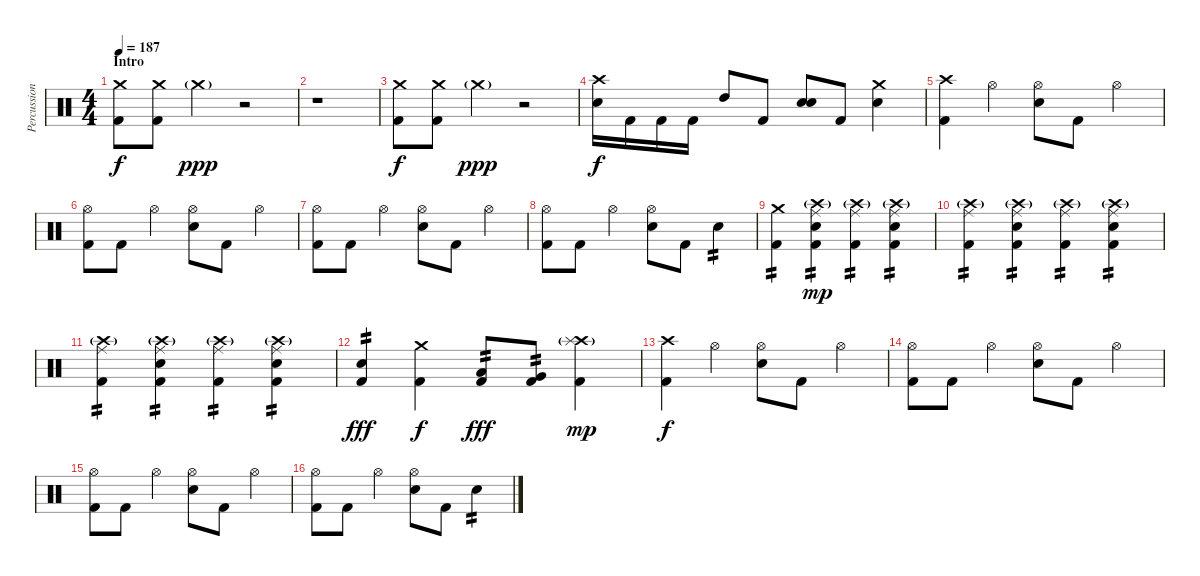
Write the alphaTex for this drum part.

\track ("Percussion" "Percussion") {instrument percussion}
\staff {score}
\articulation defaults
\ts (4 4)
\section ("" "Intro")
\tempo 187
\clef neutral
\ks c
("Crash medium (hit)" "Kick (hit) 2").8{dy f} ("Crash medium (hit)" "Kick (hit) 2").8 "Crash medium (hit)"{g}.4{dy ppp} r.2 |
r.1 |
("Crash medium (hit)" "Kick (hit) 2").8{dy f} ("Crash medium (hit)" "Kick (hit) 2").8 "Crash medium (hit)"{g}.4{dy ppp} r.2 |
("Crash high (hit)" "Electric Snare (hit)").16{dy f} "Kick (hit) 2".16 "Kick (hit) 2".16 "Kick (hit) 2".16 "High Tom (hit)".8 "Kick (hit) 2".8 ("Electric Snare (hit)" "Electric Snare (hit)").8{bd 240} "Kick (hit) 2".8 ("Crash medium (hit)" "Electric Snare (hit)").4 |
("Crash high (hit)" "Kick (hit) 2").4 "Hi-Hat (open)".4 ("Hi-Hat (open)" "Electric Snare (hit)").8 "Kick (hit) 2".8 "Hi-Hat (open)".4 |
("Hi-Hat (open)" "Kick (hit) 2").8 "Kick (hit) 2".8 "Hi-Hat (open)".4 ("Hi-Hat (open)" "Electric Snare (hit)").8 "Kick (hit) 2".8 "Hi-Hat (open)".4 |
("Hi-Hat (open)" "Kick (hit) 2").8 "Kick (hit) 2".8 "Hi-Hat (open)".4 ("Hi-Hat (open)" "Electric Snare (hit)").8 "Kick (hit) 2".8 "Hi-Hat (open)".4 |
("Hi-Hat (open)" "Kick (hit) 2").8 "Kick (hit) 2".8 "Hi-Hat (open)".4 ("Hi-Hat (open)" "Electric Snare (hit)").8 "Kick (hit) 2".8 "Electric Snare (hit)".4{tp 2} |
("Crash medium (hit)" "Kick (hit) 2").4{tp 2} ("Crash high (hit)"{g} "Ride (middle)" "Electric Snare (hit)" "Kick (hit) 2").4{tp 2 dy mp} ("Crash high (hit)"{g} "Ride (middle)" "Kick (hit) 2").4{tp 2} ("Crash high (hit)"{g} "Ride (middle)" "Electric Snare (hit)" "Kick (hit) 2").4{tp 2} |
("Crash high (hit)"{g} "Ride (middle)" "Kick (hit) 2").4{tp 2} ("Crash high (hit)"{g} "Ride (middle)" "Electric Snare (hit)" "Kick (hit) 2").4{tp 2} ("Crash high (hit)"{g} "Ride (middle)" "Kick (hit) 2").4{tp 2} ("Crash high (hit)"{g} "Ride (middle)" "Electric Snare (hit)" "Kick (hit) 2").4{tp 2} |
("Crash high (hit)"{g} "Ride (middle)" "Kick (hit) 2").4{tp 2} ("Crash high (hit)"{g} "Ride (middle)" "Electric Snare (hit)" "Kick (hit) 2").4{tp 2} ("Crash high (hit)"{g} "Ride (middle)" "Kick (hit) 2").4{tp 2} ("Crash high (hit)"{g} "Ride (middle)" "Electric Snare (hit)" "Kick (hit) 2").4{tp 2} |
("Electric Snare (hit)" "Kick (hit) 2").4{tp 2 dy fff} ("Crash medium (hit)" "Kick (hit) 2").4{dy f} ("Low Tom (hit)" "Kick (hit) 2").8{tp 2 dy fff} ("Very Low Tom (hit)" "Kick (hit) 2").8{tp 2} ("Crash high (hit)"{g} "Splash (hit)" "Kick (hit) 2").4{dy mp} |
("Crash high (hit)" "Kick (hit) 2").4{dy f} "Hi-Hat (open)".4 ("Hi-Hat (open)" "Electric Snare (hit)").8 "Kick (hit) 2".8 "Hi-Hat (open)".4 |
("Hi-Hat (open)" "Kick (hit) 2").8 "Kick (hit) 2".8 "Hi-Hat (open)".4 ("Hi-Hat (open)" "Electric Snare (hit)").8 "Kick (hit) 2".8 "Hi-Hat (open)".4 |
("Hi-Hat (open)" "Kick (hit) 2").8 "Kick (hit) 2".8 "Hi-Hat (open)".4 ("Hi-Hat (open)" "Electric Snare (hit)").8 "Kick (hit) 2".8 "Hi-Hat (open)".4 |
("Hi-Hat (open)" "Kick (hit) 2").8 "Kick (hit) 2".8 "Hi-Hat (open)".4 ("Hi-Hat (open)" "Electric Snare (hit)").8 "Kick (hit) 2".8 "Electric Snare (hit)".4{tp 2}
